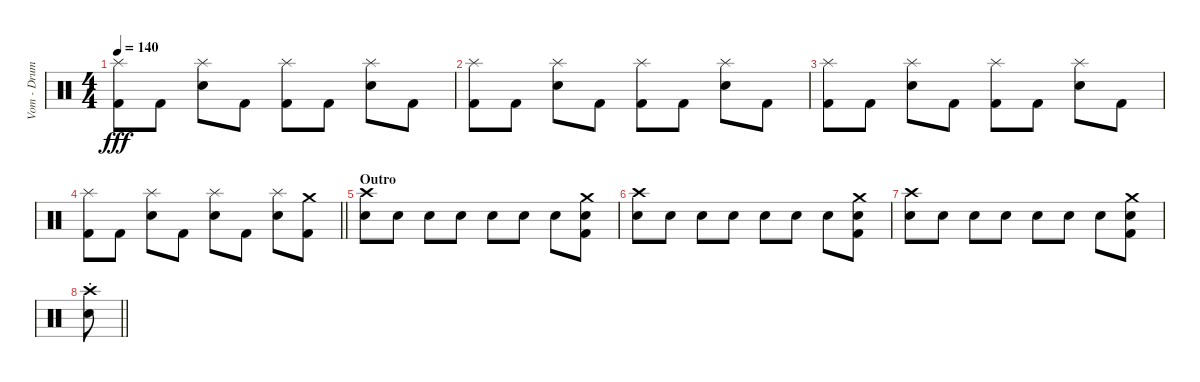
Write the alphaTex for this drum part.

\track ("Vom - Drums" "Vom - Drum") {instrument percussion}
\staff {score}
\articulation defaults
\ts (4 4)
\tempo 140
\clef neutral
\ks c
("Splash (hit)" "Kick (hit) 2").8{dy fff} "Kick (hit) 2".8 ("Splash (hit)" "Snare (hit) 2").8 "Kick (hit) 2".8 ("Splash (hit)" "Kick (hit) 2").8 "Kick (hit) 2".8 ("Splash (hit)" "Snare (hit) 2").8 "Kick (hit) 2".8 |
("Splash (hit)" "Kick (hit) 2").8 "Kick (hit) 2".8 ("Splash (hit)" "Snare (hit) 2").8 "Kick (hit) 2".8 ("Splash (hit)" "Kick (hit) 2").8 "Kick (hit) 2".8 ("Splash (hit)" "Snare (hit) 2").8 "Kick (hit) 2".8 |
("Splash (hit)" "Kick (hit) 2").8 "Kick (hit) 2".8 ("Splash (hit)" "Snare (hit) 2").8 "Kick (hit) 2".8 ("Splash (hit)" "Kick (hit) 2").8 "Kick (hit) 2".8 ("Splash (hit)" "Snare (hit) 2").8 "Kick (hit) 2".8 |
\barLineRight lightlight
("Splash (hit)" "Kick (hit) 2").8 "Kick (hit) 2".8 ("Splash (hit)" "Snare (hit) 2").8 "Kick (hit) 2".8 ("Splash (hit)" "Snare (hit) 2").8 "Kick (hit) 2".8 ("Splash (hit)" "Snare (hit) 2").8 ("Crash medium (hit)" "Kick (hit) 2").8 |
\section ("" "Outro")
("Crash high (hit)" "Snare (hit) 2").8 "Snare (hit) 2".8 "Snare (hit) 2".8 "Snare (hit) 2".8 "Snare (hit) 2".8 "Snare (hit) 2".8 "Snare (hit) 2".8 ("Crash medium (hit)" "Snare (hit) 2" "Kick (hit) 2").8 |
("Crash high (hit)" "Snare (hit) 2").8 "Snare (hit) 2".8 "Snare (hit) 2".8 "Snare (hit) 2".8 "Snare (hit) 2".8 "Snare (hit) 2".8 "Snare (hit) 2".8 ("Crash medium (hit)" "Snare (hit) 2" "Kick (hit) 2").8 |
("Crash high (hit)" "Snare (hit) 2").8 "Snare (hit) 2".8 "Snare (hit) 2".8 "Snare (hit) 2".8 "Snare (hit) 2".8 "Snare (hit) 2".8 "Snare (hit) 2".8 ("Crash medium (hit)" "Snare (hit) 2" "Kick (hit) 2").8 |
\barLineRight lightlight
("Crash high (hit)"{st} "Snare (hit) 2").8
